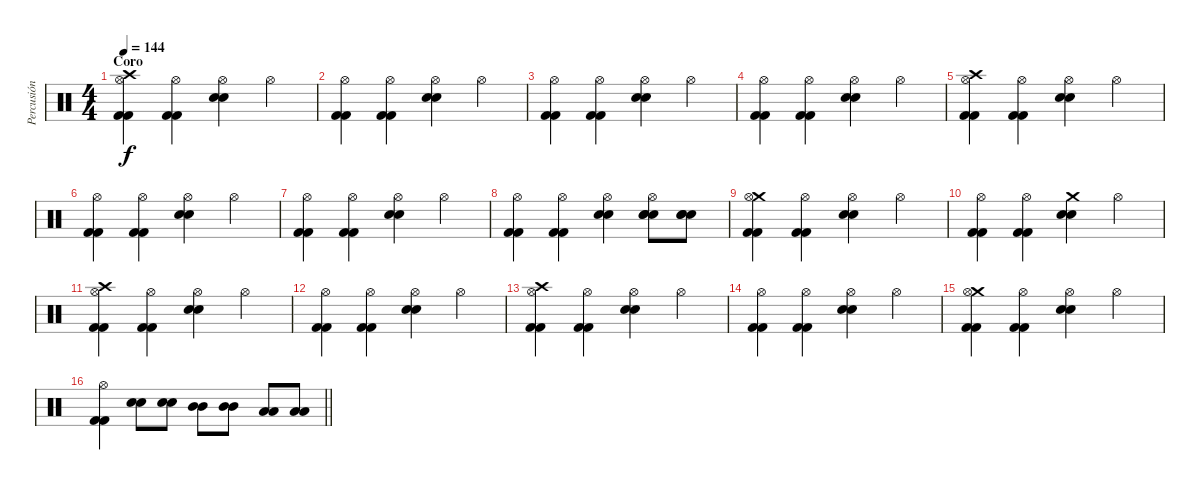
\track ("Percusión" "Percusión") {instrument percussion}
\staff {score}
\articulation defaults
\ts (4 4)
\section ("" "Coro")
\tempo 144
\clef neutral
\ks c
("Crash high (hit)" "Hi-Hat (open)" "Kick (hit) 2" "Kick (hit) 2").4{dy f} ("Hi-Hat (open)" "Kick (hit) 2" "Kick (hit) 2").4 ("Hi-Hat (open)" "Electric Snare (hit)" "Electric Snare (hit)").4 "Hi-Hat (open)".4 |
("Hi-Hat (open)" "Kick (hit) 2" "Kick (hit) 2").4 ("Hi-Hat (open)" "Kick (hit) 2" "Kick (hit) 2").4 ("Hi-Hat (open)" "Electric Snare (hit)" "Electric Snare (hit)").4 "Hi-Hat (open)".4 |
("Hi-Hat (open)" "Kick (hit) 2" "Kick (hit) 2").4 ("Hi-Hat (open)" "Kick (hit) 2" "Kick (hit) 2").4 ("Hi-Hat (open)" "Electric Snare (hit)" "Electric Snare (hit)").4 "Hi-Hat (open)".4 |
("Hi-Hat (open)" "Kick (hit) 2" "Kick (hit) 2").4 ("Hi-Hat (open)" "Kick (hit) 2" "Kick (hit) 2").4 ("Hi-Hat (open)" "Electric Snare (hit)" "Electric Snare (hit)").4 "Hi-Hat (open)".4 |
("Crash high (hit)" "Hi-Hat (open)" "Kick (hit) 2" "Kick (hit) 2").4 ("Hi-Hat (open)" "Kick (hit) 2" "Kick (hit) 2").4 ("Hi-Hat (open)" "Electric Snare (hit)" "Electric Snare (hit)").4 "Hi-Hat (open)".4 |
("Hi-Hat (open)" "Kick (hit) 2" "Kick (hit) 2").4 ("Hi-Hat (open)" "Kick (hit) 2" "Kick (hit) 2").4 ("Hi-Hat (open)" "Electric Snare (hit)" "Electric Snare (hit)").4 "Hi-Hat (open)".4 |
("Hi-Hat (open)" "Kick (hit) 2" "Kick (hit) 2").4 ("Hi-Hat (open)" "Kick (hit) 2" "Kick (hit) 2").4 ("Hi-Hat (open)" "Electric Snare (hit)" "Electric Snare (hit)").4 "Hi-Hat (open)".4 |
("Hi-Hat (open)" "Kick (hit) 2" "Kick (hit) 2").4 ("Hi-Hat (open)" "Kick (hit) 2" "Kick (hit) 2").4 ("Hi-Hat (open)" "Electric Snare (hit)" "Electric Snare (hit)").4 ("Hi-Hat (open)" "Electric Snare (hit)" "Electric Snare (hit)" "Electric Snare (hit)").8 ("Electric Snare (hit)" "Electric Snare (hit)" "Electric Snare (hit)").8 |
("Crash medium (hit)" "Hi-Hat (open)" "Kick (hit) 2" "Kick (hit) 2").4 ("Hi-Hat (open)" "Kick (hit) 2" "Kick (hit) 2").4 ("Hi-Hat (open)" "Electric Snare (hit)" "Electric Snare (hit)").4 "Hi-Hat (open)".4 |
("Hi-Hat (open)" "Kick (hit) 2" "Kick (hit) 2").4 ("Hi-Hat (open)" "Kick (hit) 2" "Kick (hit) 2").4 ("Crash medium (hit)" "Electric Snare (hit)" "Electric Snare (hit)").4 "Hi-Hat (open)".4 |
("Crash high (hit)" "Hi-Hat (open)" "Kick (hit) 2" "Kick (hit) 2").4 ("Hi-Hat (open)" "Kick (hit) 2" "Kick (hit) 2").4 ("Hi-Hat (open)" "Electric Snare (hit)" "Electric Snare (hit)").4 "Hi-Hat (open)".4 |
("Hi-Hat (open)" "Kick (hit) 2" "Kick (hit) 2").4 ("Hi-Hat (open)" "Kick (hit) 2" "Kick (hit) 2").4 ("Hi-Hat (open)" "Electric Snare (hit)" "Electric Snare (hit)").4 "Hi-Hat (open)".4 |
("Crash high (hit)" "Hi-Hat (open)" "Kick (hit) 2" "Kick (hit) 2").4 ("Hi-Hat (open)" "Kick (hit) 2" "Kick (hit) 2").4 ("Hi-Hat (open)" "Electric Snare (hit)" "Electric Snare (hit)").4 "Hi-Hat (open)".4 |
("Hi-Hat (open)" "Kick (hit) 2" "Kick (hit) 2").4 ("Hi-Hat (open)" "Kick (hit) 2" "Kick (hit) 2").4 ("Hi-Hat (open)" "Electric Snare (hit)" "Electric Snare (hit)").4 "Hi-Hat (open)".4 |
("Crash medium (hit)" "Hi-Hat (open)" "Kick (hit) 2" "Kick (hit) 2").4 ("Hi-Hat (open)" "Kick (hit) 2" "Kick (hit) 2").4 ("Hi-Hat (open)" "Electric Snare (hit)" "Electric Snare (hit)").4 "Hi-Hat (open)".4 |
\barLineRight lightlight
("Hi-Hat (open)" "Kick (hit) 2" "Kick (hit) 2").4 ("Electric Snare (hit)" "Electric Snare (hit)").8 ("Electric Snare (hit)" "Electric Snare (hit)").8 ("Mid Tom (hit)" "Mid Tom (hit)").8 ("Mid Tom (hit)" "Mid Tom (hit)").8 ("Low Tom (hit)" "Low Tom (hit)").8 ("Low Tom (hit)" "Low Tom (hit)").8
